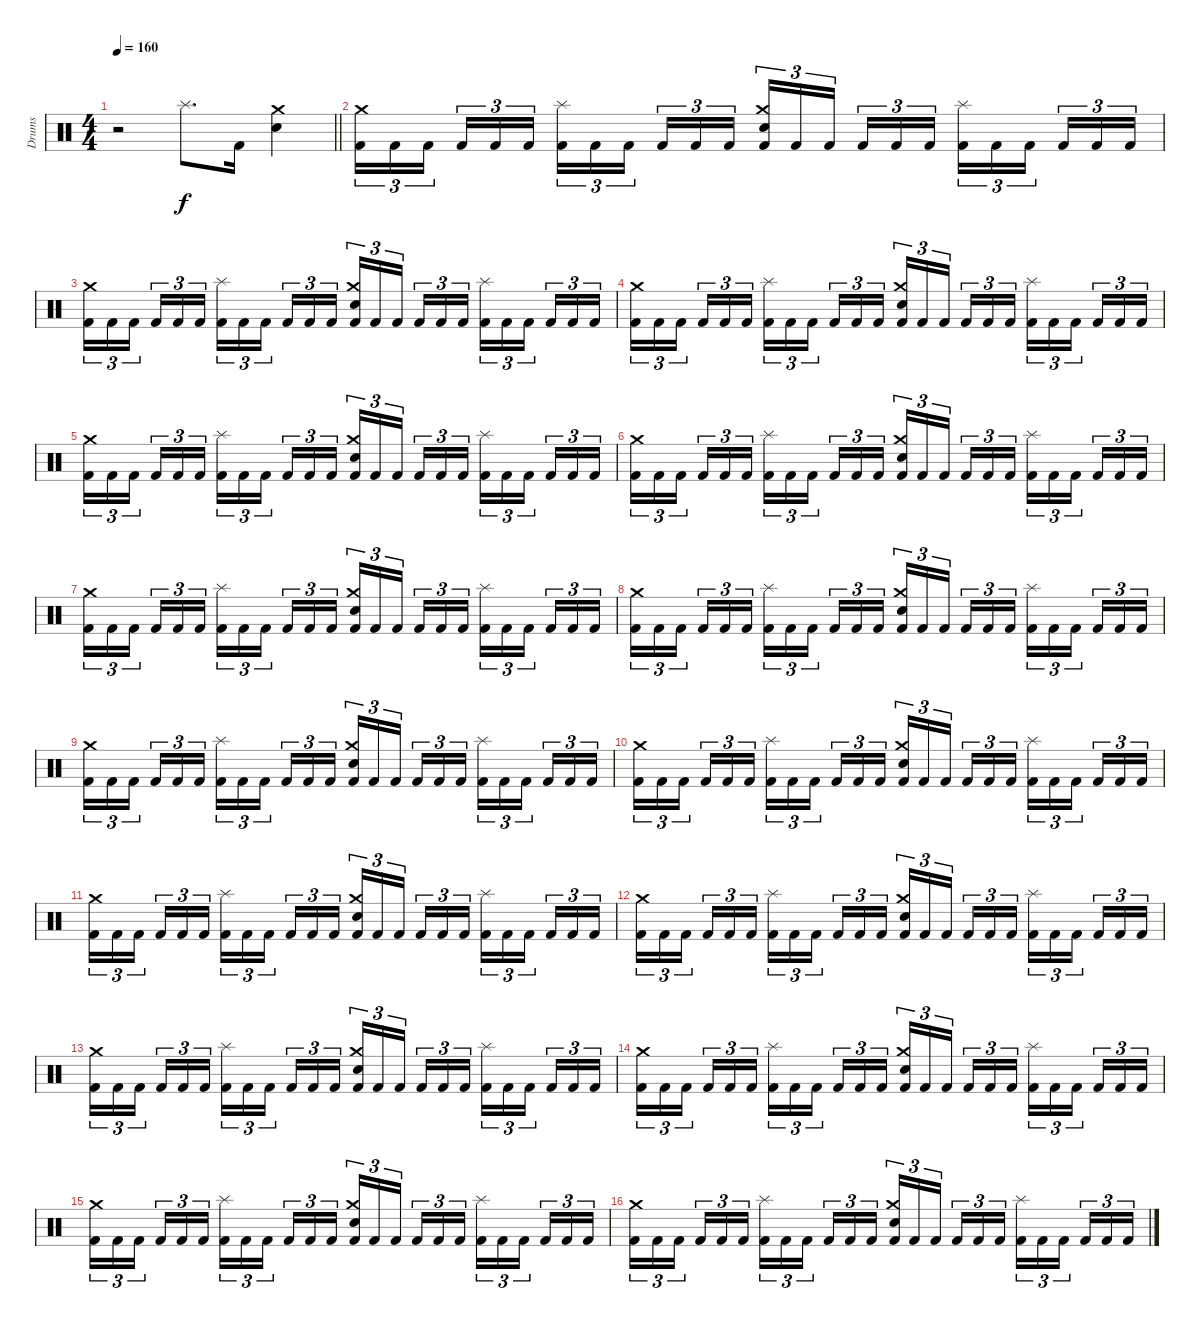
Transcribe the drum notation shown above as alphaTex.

\track ("Drums" "Drums") {instrument percussion}
\staff {score}
\articulation defaults
\ts (4 4)
\tempo 160
\clef neutral
\barLineRight lightlight
\ks c
r.2{dy f} "Splash (hit)".8{d} "Kick (hit) 2".16 ("Crash medium (hit)" "Snare (hit) 2").4 |
\section ("" "")
("Crash medium (hit)" "Kick (hit) 2").16{tu (3 2)} "Kick (hit) 2".16{tu (3 2)} "Kick (hit) 2".16{tu (3 2) beam splitsecondary} "Kick (hit) 2".16{tu (3 2)} "Kick (hit) 2".16{tu (3 2)} "Kick (hit) 2".16{tu (3 2)} ("Splash (hit)" "Kick (hit) 2").16{tu (3 2)} "Kick (hit) 2".16{tu (3 2)} "Kick (hit) 2".16{tu (3 2) beam splitsecondary} "Kick (hit) 2".16{tu (3 2)} "Kick (hit) 2".16{tu (3 2)} "Kick (hit) 2".16{tu (3 2)} ("Crash medium (hit)" "Snare (hit) 2" "Kick (hit) 2").16{tu (3 2)} "Kick (hit) 2".16{tu (3 2)} "Kick (hit) 2".16{tu (3 2) beam splitsecondary} "Kick (hit) 2".16{tu (3 2)} "Kick (hit) 2".16{tu (3 2)} "Kick (hit) 2".16{tu (3 2)} ("Splash (hit)" "Kick (hit) 2").16{tu (3 2)} "Kick (hit) 2".16{tu (3 2)} "Kick (hit) 2".16{tu (3 2) beam splitsecondary} "Kick (hit) 2".16{tu (3 2)} "Kick (hit) 2".16{tu (3 2)} "Kick (hit) 2".16{tu (3 2)} |
("Crash medium (hit)" "Kick (hit) 2").16{tu (3 2)} "Kick (hit) 2".16{tu (3 2)} "Kick (hit) 2".16{tu (3 2) beam splitsecondary} "Kick (hit) 2".16{tu (3 2)} "Kick (hit) 2".16{tu (3 2)} "Kick (hit) 2".16{tu (3 2)} ("Splash (hit)" "Kick (hit) 2").16{tu (3 2)} "Kick (hit) 2".16{tu (3 2)} "Kick (hit) 2".16{tu (3 2) beam splitsecondary} "Kick (hit) 2".16{tu (3 2)} "Kick (hit) 2".16{tu (3 2)} "Kick (hit) 2".16{tu (3 2)} ("Crash medium (hit)" "Snare (hit) 2" "Kick (hit) 2").16{tu (3 2)} "Kick (hit) 2".16{tu (3 2)} "Kick (hit) 2".16{tu (3 2) beam splitsecondary} "Kick (hit) 2".16{tu (3 2)} "Kick (hit) 2".16{tu (3 2)} "Kick (hit) 2".16{tu (3 2)} ("Splash (hit)" "Kick (hit) 2").16{tu (3 2)} "Kick (hit) 2".16{tu (3 2)} "Kick (hit) 2".16{tu (3 2) beam splitsecondary} "Kick (hit) 2".16{tu (3 2)} "Kick (hit) 2".16{tu (3 2)} "Kick (hit) 2".16{tu (3 2)} |
("Crash medium (hit)" "Kick (hit) 2").16{tu (3 2)} "Kick (hit) 2".16{tu (3 2)} "Kick (hit) 2".16{tu (3 2) beam splitsecondary} "Kick (hit) 2".16{tu (3 2)} "Kick (hit) 2".16{tu (3 2)} "Kick (hit) 2".16{tu (3 2)} ("Splash (hit)" "Kick (hit) 2").16{tu (3 2)} "Kick (hit) 2".16{tu (3 2)} "Kick (hit) 2".16{tu (3 2) beam splitsecondary} "Kick (hit) 2".16{tu (3 2)} "Kick (hit) 2".16{tu (3 2)} "Kick (hit) 2".16{tu (3 2)} ("Crash medium (hit)" "Snare (hit) 2" "Kick (hit) 2").16{tu (3 2)} "Kick (hit) 2".16{tu (3 2)} "Kick (hit) 2".16{tu (3 2) beam splitsecondary} "Kick (hit) 2".16{tu (3 2)} "Kick (hit) 2".16{tu (3 2)} "Kick (hit) 2".16{tu (3 2)} ("Splash (hit)" "Kick (hit) 2").16{tu (3 2)} "Kick (hit) 2".16{tu (3 2)} "Kick (hit) 2".16{tu (3 2) beam splitsecondary} "Kick (hit) 2".16{tu (3 2)} "Kick (hit) 2".16{tu (3 2)} "Kick (hit) 2".16{tu (3 2)} |
("Crash medium (hit)" "Kick (hit) 2").16{tu (3 2)} "Kick (hit) 2".16{tu (3 2)} "Kick (hit) 2".16{tu (3 2) beam splitsecondary} "Kick (hit) 2".16{tu (3 2)} "Kick (hit) 2".16{tu (3 2)} "Kick (hit) 2".16{tu (3 2)} ("Splash (hit)" "Kick (hit) 2").16{tu (3 2)} "Kick (hit) 2".16{tu (3 2)} "Kick (hit) 2".16{tu (3 2) beam splitsecondary} "Kick (hit) 2".16{tu (3 2)} "Kick (hit) 2".16{tu (3 2)} "Kick (hit) 2".16{tu (3 2)} ("Crash medium (hit)" "Snare (hit) 2" "Kick (hit) 2").16{tu (3 2)} "Kick (hit) 2".16{tu (3 2)} "Kick (hit) 2".16{tu (3 2) beam splitsecondary} "Kick (hit) 2".16{tu (3 2)} "Kick (hit) 2".16{tu (3 2)} "Kick (hit) 2".16{tu (3 2)} ("Splash (hit)" "Kick (hit) 2").16{tu (3 2)} "Kick (hit) 2".16{tu (3 2)} "Kick (hit) 2".16{tu (3 2) beam splitsecondary} "Kick (hit) 2".16{tu (3 2)} "Kick (hit) 2".16{tu (3 2)} "Kick (hit) 2".16{tu (3 2)} |
("Crash medium (hit)" "Kick (hit) 2").16{tu (3 2)} "Kick (hit) 2".16{tu (3 2)} "Kick (hit) 2".16{tu (3 2) beam splitsecondary} "Kick (hit) 2".16{tu (3 2)} "Kick (hit) 2".16{tu (3 2)} "Kick (hit) 2".16{tu (3 2)} ("Splash (hit)" "Kick (hit) 2").16{tu (3 2)} "Kick (hit) 2".16{tu (3 2)} "Kick (hit) 2".16{tu (3 2) beam splitsecondary} "Kick (hit) 2".16{tu (3 2)} "Kick (hit) 2".16{tu (3 2)} "Kick (hit) 2".16{tu (3 2)} ("Crash medium (hit)" "Snare (hit) 2" "Kick (hit) 2").16{tu (3 2)} "Kick (hit) 2".16{tu (3 2)} "Kick (hit) 2".16{tu (3 2) beam splitsecondary} "Kick (hit) 2".16{tu (3 2)} "Kick (hit) 2".16{tu (3 2)} "Kick (hit) 2".16{tu (3 2)} ("Splash (hit)" "Kick (hit) 2").16{tu (3 2)} "Kick (hit) 2".16{tu (3 2)} "Kick (hit) 2".16{tu (3 2) beam splitsecondary} "Kick (hit) 2".16{tu (3 2)} "Kick (hit) 2".16{tu (3 2)} "Kick (hit) 2".16{tu (3 2)} |
("Crash medium (hit)" "Kick (hit) 2").16{tu (3 2)} "Kick (hit) 2".16{tu (3 2)} "Kick (hit) 2".16{tu (3 2) beam splitsecondary} "Kick (hit) 2".16{tu (3 2)} "Kick (hit) 2".16{tu (3 2)} "Kick (hit) 2".16{tu (3 2)} ("Splash (hit)" "Kick (hit) 2").16{tu (3 2)} "Kick (hit) 2".16{tu (3 2)} "Kick (hit) 2".16{tu (3 2) beam splitsecondary} "Kick (hit) 2".16{tu (3 2)} "Kick (hit) 2".16{tu (3 2)} "Kick (hit) 2".16{tu (3 2)} ("Crash medium (hit)" "Snare (hit) 2" "Kick (hit) 2").16{tu (3 2)} "Kick (hit) 2".16{tu (3 2)} "Kick (hit) 2".16{tu (3 2) beam splitsecondary} "Kick (hit) 2".16{tu (3 2)} "Kick (hit) 2".16{tu (3 2)} "Kick (hit) 2".16{tu (3 2)} ("Splash (hit)" "Kick (hit) 2").16{tu (3 2)} "Kick (hit) 2".16{tu (3 2)} "Kick (hit) 2".16{tu (3 2) beam splitsecondary} "Kick (hit) 2".16{tu (3 2)} "Kick (hit) 2".16{tu (3 2)} "Kick (hit) 2".16{tu (3 2)} |
("Crash medium (hit)" "Kick (hit) 2").16{tu (3 2)} "Kick (hit) 2".16{tu (3 2)} "Kick (hit) 2".16{tu (3 2) beam splitsecondary} "Kick (hit) 2".16{tu (3 2)} "Kick (hit) 2".16{tu (3 2)} "Kick (hit) 2".16{tu (3 2)} ("Splash (hit)" "Kick (hit) 2").16{tu (3 2)} "Kick (hit) 2".16{tu (3 2)} "Kick (hit) 2".16{tu (3 2) beam splitsecondary} "Kick (hit) 2".16{tu (3 2)} "Kick (hit) 2".16{tu (3 2)} "Kick (hit) 2".16{tu (3 2)} ("Crash medium (hit)" "Snare (hit) 2" "Kick (hit) 2").16{tu (3 2)} "Kick (hit) 2".16{tu (3 2)} "Kick (hit) 2".16{tu (3 2) beam splitsecondary} "Kick (hit) 2".16{tu (3 2)} "Kick (hit) 2".16{tu (3 2)} "Kick (hit) 2".16{tu (3 2)} ("Splash (hit)" "Kick (hit) 2").16{tu (3 2)} "Kick (hit) 2".16{tu (3 2)} "Kick (hit) 2".16{tu (3 2) beam splitsecondary} "Kick (hit) 2".16{tu (3 2)} "Kick (hit) 2".16{tu (3 2)} "Kick (hit) 2".16{tu (3 2)} |
("Crash medium (hit)" "Kick (hit) 2").16{tu (3 2)} "Kick (hit) 2".16{tu (3 2)} "Kick (hit) 2".16{tu (3 2) beam splitsecondary} "Kick (hit) 2".16{tu (3 2)} "Kick (hit) 2".16{tu (3 2)} "Kick (hit) 2".16{tu (3 2)} ("Splash (hit)" "Kick (hit) 2").16{tu (3 2)} "Kick (hit) 2".16{tu (3 2)} "Kick (hit) 2".16{tu (3 2) beam splitsecondary} "Kick (hit) 2".16{tu (3 2)} "Kick (hit) 2".16{tu (3 2)} "Kick (hit) 2".16{tu (3 2)} ("Crash medium (hit)" "Snare (hit) 2" "Kick (hit) 2").16{tu (3 2)} "Kick (hit) 2".16{tu (3 2)} "Kick (hit) 2".16{tu (3 2) beam splitsecondary} "Kick (hit) 2".16{tu (3 2)} "Kick (hit) 2".16{tu (3 2)} "Kick (hit) 2".16{tu (3 2)} ("Splash (hit)" "Kick (hit) 2").16{tu (3 2)} "Kick (hit) 2".16{tu (3 2)} "Kick (hit) 2".16{tu (3 2) beam splitsecondary} "Kick (hit) 2".16{tu (3 2)} "Kick (hit) 2".16{tu (3 2)} "Kick (hit) 2".16{tu (3 2)} |
("Crash medium (hit)" "Kick (hit) 2").16{tu (3 2)} "Kick (hit) 2".16{tu (3 2)} "Kick (hit) 2".16{tu (3 2) beam splitsecondary} "Kick (hit) 2".16{tu (3 2)} "Kick (hit) 2".16{tu (3 2)} "Kick (hit) 2".16{tu (3 2)} ("Splash (hit)" "Kick (hit) 2").16{tu (3 2)} "Kick (hit) 2".16{tu (3 2)} "Kick (hit) 2".16{tu (3 2) beam splitsecondary} "Kick (hit) 2".16{tu (3 2)} "Kick (hit) 2".16{tu (3 2)} "Kick (hit) 2".16{tu (3 2)} ("Crash medium (hit)" "Snare (hit) 2" "Kick (hit) 2").16{tu (3 2)} "Kick (hit) 2".16{tu (3 2)} "Kick (hit) 2".16{tu (3 2) beam splitsecondary} "Kick (hit) 2".16{tu (3 2)} "Kick (hit) 2".16{tu (3 2)} "Kick (hit) 2".16{tu (3 2)} ("Splash (hit)" "Kick (hit) 2").16{tu (3 2)} "Kick (hit) 2".16{tu (3 2)} "Kick (hit) 2".16{tu (3 2) beam splitsecondary} "Kick (hit) 2".16{tu (3 2)} "Kick (hit) 2".16{tu (3 2)} "Kick (hit) 2".16{tu (3 2)} |
("Crash medium (hit)" "Kick (hit) 2").16{tu (3 2)} "Kick (hit) 2".16{tu (3 2)} "Kick (hit) 2".16{tu (3 2) beam splitsecondary} "Kick (hit) 2".16{tu (3 2)} "Kick (hit) 2".16{tu (3 2)} "Kick (hit) 2".16{tu (3 2)} ("Splash (hit)" "Kick (hit) 2").16{tu (3 2)} "Kick (hit) 2".16{tu (3 2)} "Kick (hit) 2".16{tu (3 2) beam splitsecondary} "Kick (hit) 2".16{tu (3 2)} "Kick (hit) 2".16{tu (3 2)} "Kick (hit) 2".16{tu (3 2)} ("Crash medium (hit)" "Snare (hit) 2" "Kick (hit) 2").16{tu (3 2)} "Kick (hit) 2".16{tu (3 2)} "Kick (hit) 2".16{tu (3 2) beam splitsecondary} "Kick (hit) 2".16{tu (3 2)} "Kick (hit) 2".16{tu (3 2)} "Kick (hit) 2".16{tu (3 2)} ("Splash (hit)" "Kick (hit) 2").16{tu (3 2)} "Kick (hit) 2".16{tu (3 2)} "Kick (hit) 2".16{tu (3 2) beam splitsecondary} "Kick (hit) 2".16{tu (3 2)} "Kick (hit) 2".16{tu (3 2)} "Kick (hit) 2".16{tu (3 2)} |
("Crash medium (hit)" "Kick (hit) 2").16{tu (3 2)} "Kick (hit) 2".16{tu (3 2)} "Kick (hit) 2".16{tu (3 2) beam splitsecondary} "Kick (hit) 2".16{tu (3 2)} "Kick (hit) 2".16{tu (3 2)} "Kick (hit) 2".16{tu (3 2)} ("Splash (hit)" "Kick (hit) 2").16{tu (3 2)} "Kick (hit) 2".16{tu (3 2)} "Kick (hit) 2".16{tu (3 2) beam splitsecondary} "Kick (hit) 2".16{tu (3 2)} "Kick (hit) 2".16{tu (3 2)} "Kick (hit) 2".16{tu (3 2)} ("Crash medium (hit)" "Snare (hit) 2" "Kick (hit) 2").16{tu (3 2)} "Kick (hit) 2".16{tu (3 2)} "Kick (hit) 2".16{tu (3 2) beam splitsecondary} "Kick (hit) 2".16{tu (3 2)} "Kick (hit) 2".16{tu (3 2)} "Kick (hit) 2".16{tu (3 2)} ("Splash (hit)" "Kick (hit) 2").16{tu (3 2)} "Kick (hit) 2".16{tu (3 2)} "Kick (hit) 2".16{tu (3 2) beam splitsecondary} "Kick (hit) 2".16{tu (3 2)} "Kick (hit) 2".16{tu (3 2)} "Kick (hit) 2".16{tu (3 2)} |
("Crash medium (hit)" "Kick (hit) 2").16{tu (3 2)} "Kick (hit) 2".16{tu (3 2)} "Kick (hit) 2".16{tu (3 2) beam splitsecondary} "Kick (hit) 2".16{tu (3 2)} "Kick (hit) 2".16{tu (3 2)} "Kick (hit) 2".16{tu (3 2)} ("Splash (hit)" "Kick (hit) 2").16{tu (3 2)} "Kick (hit) 2".16{tu (3 2)} "Kick (hit) 2".16{tu (3 2) beam splitsecondary} "Kick (hit) 2".16{tu (3 2)} "Kick (hit) 2".16{tu (3 2)} "Kick (hit) 2".16{tu (3 2)} ("Crash medium (hit)" "Snare (hit) 2" "Kick (hit) 2").16{tu (3 2)} "Kick (hit) 2".16{tu (3 2)} "Kick (hit) 2".16{tu (3 2) beam splitsecondary} "Kick (hit) 2".16{tu (3 2)} "Kick (hit) 2".16{tu (3 2)} "Kick (hit) 2".16{tu (3 2)} ("Splash (hit)" "Kick (hit) 2").16{tu (3 2)} "Kick (hit) 2".16{tu (3 2)} "Kick (hit) 2".16{tu (3 2) beam splitsecondary} "Kick (hit) 2".16{tu (3 2)} "Kick (hit) 2".16{tu (3 2)} "Kick (hit) 2".16{tu (3 2)} |
("Crash medium (hit)" "Kick (hit) 2").16{tu (3 2)} "Kick (hit) 2".16{tu (3 2)} "Kick (hit) 2".16{tu (3 2) beam splitsecondary} "Kick (hit) 2".16{tu (3 2)} "Kick (hit) 2".16{tu (3 2)} "Kick (hit) 2".16{tu (3 2)} ("Splash (hit)" "Kick (hit) 2").16{tu (3 2)} "Kick (hit) 2".16{tu (3 2)} "Kick (hit) 2".16{tu (3 2) beam splitsecondary} "Kick (hit) 2".16{tu (3 2)} "Kick (hit) 2".16{tu (3 2)} "Kick (hit) 2".16{tu (3 2)} ("Crash medium (hit)" "Snare (hit) 2" "Kick (hit) 2").16{tu (3 2)} "Kick (hit) 2".16{tu (3 2)} "Kick (hit) 2".16{tu (3 2) beam splitsecondary} "Kick (hit) 2".16{tu (3 2)} "Kick (hit) 2".16{tu (3 2)} "Kick (hit) 2".16{tu (3 2)} ("Splash (hit)" "Kick (hit) 2").16{tu (3 2)} "Kick (hit) 2".16{tu (3 2)} "Kick (hit) 2".16{tu (3 2) beam splitsecondary} "Kick (hit) 2".16{tu (3 2)} "Kick (hit) 2".16{tu (3 2)} "Kick (hit) 2".16{tu (3 2)} |
("Crash medium (hit)" "Kick (hit) 2").16{tu (3 2)} "Kick (hit) 2".16{tu (3 2)} "Kick (hit) 2".16{tu (3 2) beam splitsecondary} "Kick (hit) 2".16{tu (3 2)} "Kick (hit) 2".16{tu (3 2)} "Kick (hit) 2".16{tu (3 2)} ("Splash (hit)" "Kick (hit) 2").16{tu (3 2)} "Kick (hit) 2".16{tu (3 2)} "Kick (hit) 2".16{tu (3 2) beam splitsecondary} "Kick (hit) 2".16{tu (3 2)} "Kick (hit) 2".16{tu (3 2)} "Kick (hit) 2".16{tu (3 2)} ("Crash medium (hit)" "Snare (hit) 2" "Kick (hit) 2").16{tu (3 2)} "Kick (hit) 2".16{tu (3 2)} "Kick (hit) 2".16{tu (3 2) beam splitsecondary} "Kick (hit) 2".16{tu (3 2)} "Kick (hit) 2".16{tu (3 2)} "Kick (hit) 2".16{tu (3 2)} ("Splash (hit)" "Kick (hit) 2").16{tu (3 2)} "Kick (hit) 2".16{tu (3 2)} "Kick (hit) 2".16{tu (3 2) beam splitsecondary} "Kick (hit) 2".16{tu (3 2)} "Kick (hit) 2".16{tu (3 2)} "Kick (hit) 2".16{tu (3 2)} |
("Crash medium (hit)" "Kick (hit) 2").16{tu (3 2)} "Kick (hit) 2".16{tu (3 2)} "Kick (hit) 2".16{tu (3 2) beam splitsecondary} "Kick (hit) 2".16{tu (3 2)} "Kick (hit) 2".16{tu (3 2)} "Kick (hit) 2".16{tu (3 2)} ("Splash (hit)" "Kick (hit) 2").16{tu (3 2)} "Kick (hit) 2".16{tu (3 2)} "Kick (hit) 2".16{tu (3 2) beam splitsecondary} "Kick (hit) 2".16{tu (3 2)} "Kick (hit) 2".16{tu (3 2)} "Kick (hit) 2".16{tu (3 2)} ("Crash medium (hit)" "Snare (hit) 2" "Kick (hit) 2").16{tu (3 2)} "Kick (hit) 2".16{tu (3 2)} "Kick (hit) 2".16{tu (3 2) beam splitsecondary} "Kick (hit) 2".16{tu (3 2)} "Kick (hit) 2".16{tu (3 2)} "Kick (hit) 2".16{tu (3 2)} ("Splash (hit)" "Kick (hit) 2").16{tu (3 2)} "Kick (hit) 2".16{tu (3 2)} "Kick (hit) 2".16{tu (3 2) beam splitsecondary} "Kick (hit) 2".16{tu (3 2)} "Kick (hit) 2".16{tu (3 2)} "Kick (hit) 2".16{tu (3 2)}
